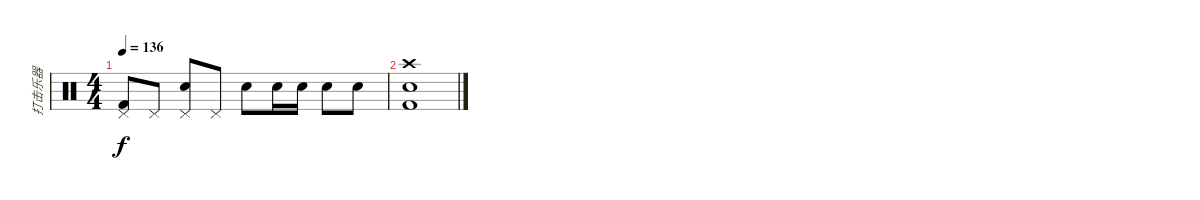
\track ("打击乐器" "打击乐器") {instrument percussion}
\staff {score}
\articulation defaults
\ts (4 4)
\tempo 136
\clef neutral
\ks c
("Pedal Hi-Hat (hit)" "Kick (hit) 2").8{dy f} "Pedal Hi-Hat (hit)".8 ("Pedal Hi-Hat (hit)" "Snare (hit) 2").8 "Pedal Hi-Hat (hit)".8 "Snare (hit) 2".8 "Snare (hit) 2".16 "Snare (hit) 2".16 "Snare (hit) 2".8 "Snare (hit) 2".8 |
("Crash high (hit)" "Snare (hit) 2" "Kick (hit) 2").1
